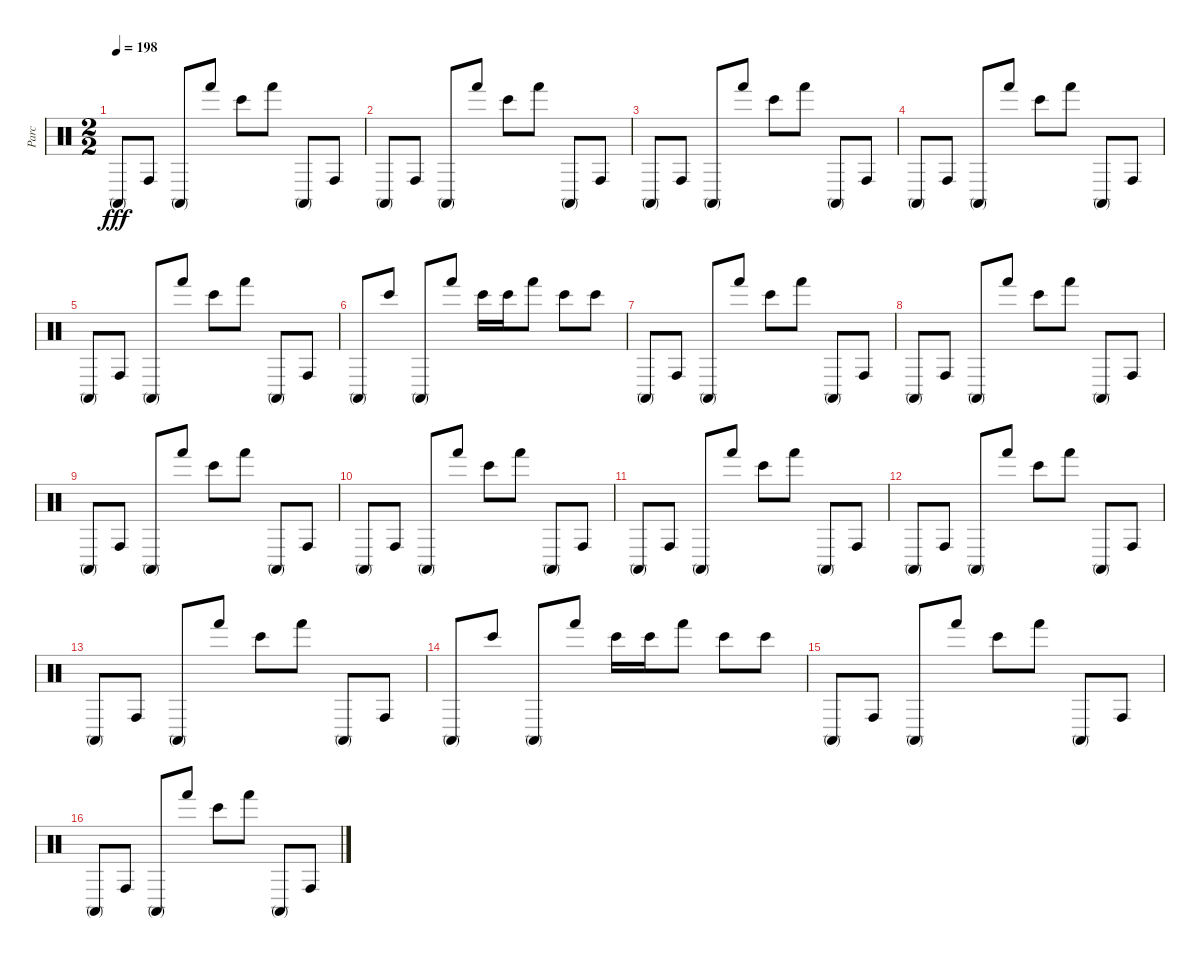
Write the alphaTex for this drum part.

\track ("Parc" "Parc") {instrument percussion}
\staff {score}
\articulation defaults
\ts (2 2)
\tempo 198
\clef neutral
\ks c "Conga high (mute)".8{dy fff} "Conga high (hit)".8 "Conga high (mute)".8 "Hand (hit)".8 "Bongo High (hit)".8 "Hand (hit)".8 "Conga high (mute)".8 "Conga high (hit)".8
|
"Conga high (mute)".8 "Conga high (hit)".8 "Conga high (mute)".8 "Hand (hit)".8 "Bongo High (hit)".8 "Hand (hit)".8 "Conga high (mute)".8 "Conga high (hit)".8 |
"Conga high (mute)".8 "Conga high (hit)".8 "Conga high (mute)".8 "Hand (hit)".8 "Bongo High (hit)".8 "Hand (hit)".8 "Conga high (mute)".8 "Conga high (hit)".8 |
"Conga high (mute)".8 "Conga high (hit)".8 "Conga high (mute)".8 "Hand (hit)".8 "Bongo High (hit)".8 "Hand (hit)".8 "Conga high (mute)".8 "Conga high (hit)".8 |
"Conga high (mute)".8 "Conga high (hit)".8 "Conga high (mute)".8 "Hand (hit)".8 "Bongo High (hit)".8 "Hand (hit)".8 "Conga high (mute)".8 "Conga high (hit)".8 |
"Conga high (mute)".8 "Bongo High (hit)".8 "Conga high (mute)".8 "Hand (hit)".8 "Bongo High (hit)".16 "Bongo High (hit)".16 "Hand (hit)".8 "Bongo High (hit)".8 "Bongo High (hit)".8 |
"Conga high (mute)".8 "Conga high (hit)".8 "Conga high (mute)".8 "Hand (hit)".8 "Bongo High (hit)".8 "Hand (hit)".8 "Conga high (mute)".8 "Conga high (hit)".8 |
"Conga high (mute)".8 "Conga high (hit)".8 "Conga high (mute)".8 "Hand (hit)".8 "Bongo High (hit)".8 "Hand (hit)".8 "Conga high (mute)".8 "Conga high (hit)".8 |
"Conga high (mute)".8 "Conga high (hit)".8 "Conga high (mute)".8 "Hand (hit)".8 "Bongo High (hit)".8 "Hand (hit)".8 "Conga high (mute)".8 "Conga high (hit)".8 |
"Conga high (mute)".8 "Conga high (hit)".8 "Conga high (mute)".8 "Hand (hit)".8 "Bongo High (hit)".8 "Hand (hit)".8 "Conga high (mute)".8 "Conga high (hit)".8 |
"Conga high (mute)".8 "Conga high (hit)".8 "Conga high (mute)".8 "Hand (hit)".8 "Bongo High (hit)".8 "Hand (hit)".8 "Conga high (mute)".8 "Conga high (hit)".8 |
"Conga high (mute)".8 "Conga high (hit)".8 "Conga high (mute)".8 "Hand (hit)".8 "Bongo High (hit)".8 "Hand (hit)".8 "Conga high (mute)".8 "Conga high (hit)".8 |
"Conga high (mute)".8 "Conga high (hit)".8 "Conga high (mute)".8 "Hand (hit)".8 "Bongo High (hit)".8 "Hand (hit)".8 "Conga high (mute)".8 "Conga high (hit)".8 |
"Conga high (mute)".8 "Bongo High (hit)".8 "Conga high (mute)".8 "Hand (hit)".8 "Bongo High (hit)".16 "Bongo High (hit)".16 "Hand (hit)".8 "Bongo High (hit)".8 "Bongo High (hit)".8 |
"Conga high (mute)".8 "Conga high (hit)".8 "Conga high (mute)".8 "Hand (hit)".8 "Bongo High (hit)".8 "Hand (hit)".8 "Conga high (mute)".8 "Conga high (hit)".8 |
"Conga high (mute)".8 "Conga high (hit)".8 "Conga high (mute)".8 "Hand (hit)".8 "Bongo High (hit)".8 "Hand (hit)".8 "Conga high (mute)".8 "Conga high (hit)".8
